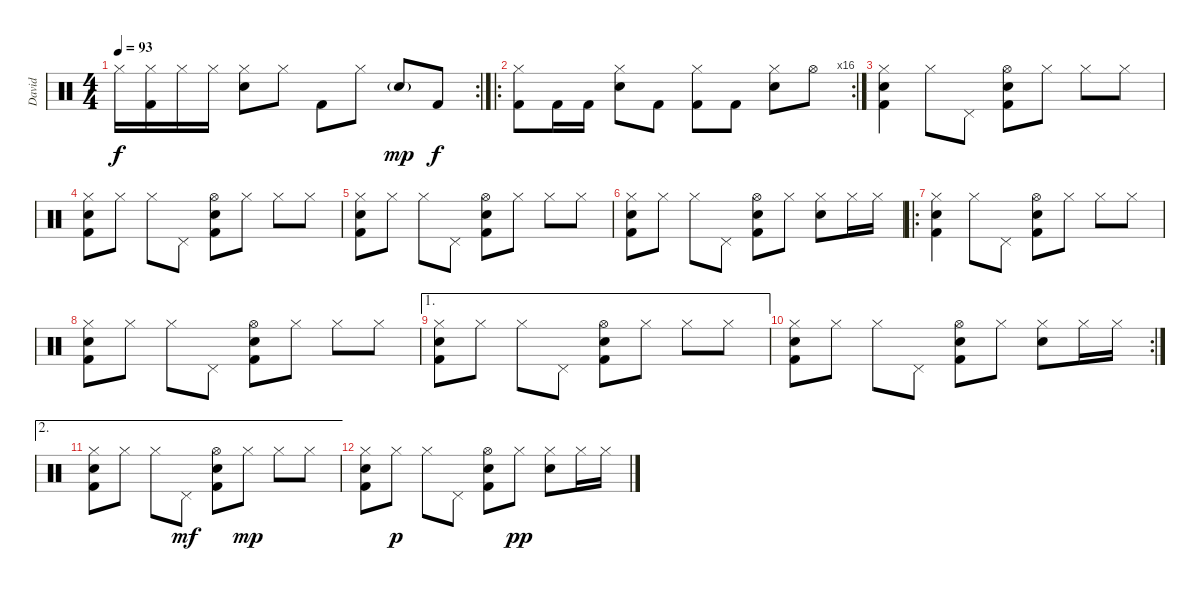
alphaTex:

\track ("David" "David") {instrument percussion}
\staff {score}
\articulation defaults
\rc 2
\ts (4 4)
\tempo 93
\clef neutral
\ks c "Hi-Hat (closed)".16{dy f}
("Hi-Hat (closed)" "Kick (hit) 2").16 "Hi-Hat (closed)".16 "Hi-Hat (closed)".16 ("Hi-Hat (closed)" "Snare (hit) 2").8 "Hi-Hat (closed)".8 "Kick (hit) 2".8 "Hi-Hat (closed)".8 "Snare (hit) 2"{g}.8{dy mp} "Kick (hit) 2".8{dy f} |
\ro
\rc 16
("Hi-Hat (closed)" "Kick (hit) 2").8 "Kick (hit) 2".16 "Kick (hit) 2".16 ("Hi-Hat (closed)" "Snare (hit) 2").8 "Kick (hit) 2".8 ("Hi-Hat (closed)" "Kick (hit) 2").8 "Kick (hit) 2".8 ("Hi-Hat (closed)" "Snare (hit) 2").8 "Hi-Hat (open)".8 |
("Hi-Hat (closed)" "Snare (hit) 2" "Kick (hit) 2").4 "Hi-Hat (closed)".8 "Pedal Hi-Hat (hit)".8 ("Hi-Hat (open)" "Snare (hit) 2" "Kick (hit) 2").8 "Hi-Hat (closed)".8 "Hi-Hat (closed)".8 "Hi-Hat (closed)".8 |
("Hi-Hat (closed)" "Snare (hit) 2" "Kick (hit) 2").8 "Hi-Hat (closed)".8 "Hi-Hat (closed)".8 "Pedal Hi-Hat (hit)".8 ("Hi-Hat (open)" "Snare (hit) 2" "Kick (hit) 2").8 "Hi-Hat (closed)".8 "Hi-Hat (closed)".8 "Hi-Hat (closed)".8 |
("Hi-Hat (closed)" "Snare (hit) 2" "Kick (hit) 2").8 "Hi-Hat (closed)".8 "Hi-Hat (closed)".8 "Pedal Hi-Hat (hit)".8 ("Hi-Hat (open)" "Snare (hit) 2" "Kick (hit) 2").8 "Hi-Hat (closed)".8 "Hi-Hat (closed)".8 "Hi-Hat (closed)".8 |
("Hi-Hat (closed)" "Snare (hit) 2" "Kick (hit) 2").8 "Hi-Hat (closed)".8 "Hi-Hat (closed)".8 "Pedal Hi-Hat (hit)".8 ("Hi-Hat (open)" "Snare (hit) 2" "Kick (hit) 2").8 "Hi-Hat (closed)".8 ("Hi-Hat (closed)" "Snare (hit) 2").8 "Hi-Hat (closed)".16 "Hi-Hat (closed)".16 |
\ro
("Hi-Hat (closed)" "Snare (hit) 2" "Kick (hit) 2").4 "Hi-Hat (closed)".8 "Pedal Hi-Hat (hit)".8 ("Hi-Hat (open)" "Snare (hit) 2" "Kick (hit) 2").8 "Hi-Hat (closed)".8 "Hi-Hat (closed)".8 "Hi-Hat (closed)".8 |
("Hi-Hat (closed)" "Snare (hit) 2" "Kick (hit) 2").8 "Hi-Hat (closed)".8 "Hi-Hat (closed)".8 "Pedal Hi-Hat (hit)".8 ("Hi-Hat (open)" "Snare (hit) 2" "Kick (hit) 2").8 "Hi-Hat (closed)".8 "Hi-Hat (closed)".8 "Hi-Hat (closed)".8 |
\ae 1
("Hi-Hat (closed)" "Snare (hit) 2" "Kick (hit) 2").8 "Hi-Hat (closed)".8 "Hi-Hat (closed)".8 "Pedal Hi-Hat (hit)".8 ("Hi-Hat (open)" "Snare (hit) 2" "Kick (hit) 2").8 "Hi-Hat (closed)".8 "Hi-Hat (closed)".8 "Hi-Hat (closed)".8 |
\rc 2
("Hi-Hat (closed)" "Snare (hit) 2" "Kick (hit) 2").8 "Hi-Hat (closed)".8 "Hi-Hat (closed)".8 "Pedal Hi-Hat (hit)".8 ("Hi-Hat (open)" "Snare (hit) 2" "Kick (hit) 2").8 "Hi-Hat (closed)".8 ("Hi-Hat (closed)" "Snare (hit) 2").8 "Hi-Hat (closed)".16 "Hi-Hat (closed)".16 |
\ae 2
("Hi-Hat (closed)" "Snare (hit) 2" "Kick (hit) 2").8 "Hi-Hat (closed)".8 "Hi-Hat (closed)".8 "Pedal Hi-Hat (hit)".8{dy mf} ("Hi-Hat (open)" "Snare (hit) 2" "Kick (hit) 2").8 "Hi-Hat (closed)".8{dy mp} "Hi-Hat (closed)".8 "Hi-Hat (closed)".8 |
("Hi-Hat (closed)" "Snare (hit) 2" "Kick (hit) 2").8 "Hi-Hat (closed)".8{dy p} "Hi-Hat (closed)".8 "Pedal Hi-Hat (hit)".8 ("Hi-Hat (open)" "Snare (hit) 2" "Kick (hit) 2").8 "Hi-Hat (closed)".8{dy pp} ("Hi-Hat (closed)" "Snare (hit) 2").8 "Hi-Hat (closed)".16 "Hi-Hat (closed)".16
